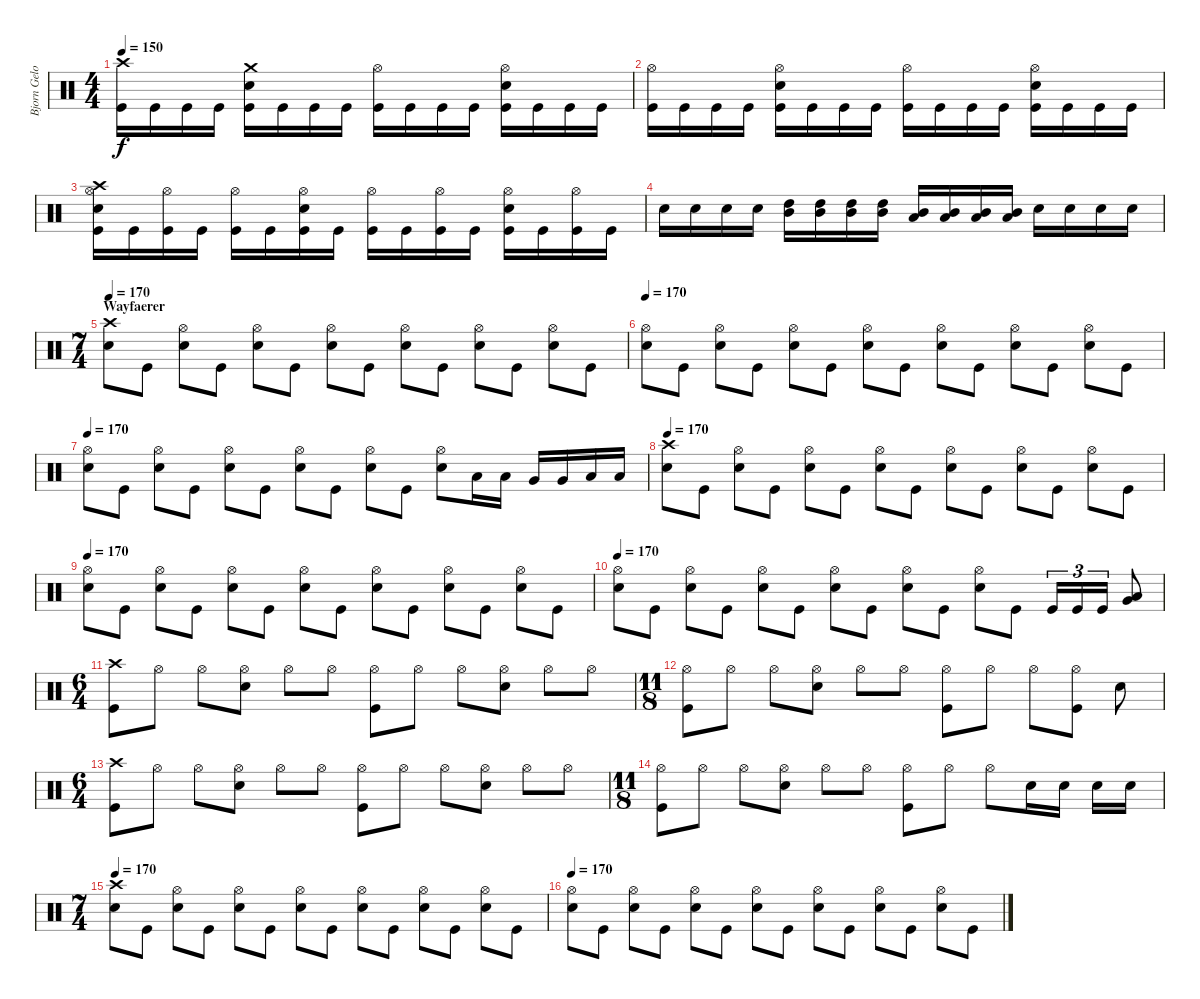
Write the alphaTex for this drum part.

\track ("Bjorn Gelotte-Drum" "Bjorn Gelo") {instrument percussion}
\staff {score}
\articulation defaults
\ts (4 4)
\tempo 150
\clef neutral
\ks c
("Kick (hit)" "Crash high (hit)").16{dy f} "Kick (hit)".16 "Kick (hit)".16 "Kick (hit)".16 ("Kick (hit)" "Electric Snare (hit)" "Crash medium (hit)").16 "Kick (hit)".16 "Kick (hit)".16 "Kick (hit)".16 ("Kick (hit)" "Hi-Hat (open)").16 "Kick (hit)".16 "Kick (hit)".16 "Kick (hit)".16 ("Kick (hit)" "Electric Snare (hit)" "Hi-Hat (open)").16 "Kick (hit)".16 "Kick (hit)".16 "Kick (hit)".16 |
("Kick (hit)" "Hi-Hat (open)").16 "Kick (hit)".16 "Kick (hit)".16 "Kick (hit)".16 ("Kick (hit)" "Electric Snare (hit)" "Hi-Hat (open)").16 "Kick (hit)".16 "Kick (hit)".16 "Kick (hit)".16 ("Kick (hit)" "Hi-Hat (open)").16 "Kick (hit)".16 "Kick (hit)".16 "Kick (hit)".16 ("Kick (hit)" "Electric Snare (hit)" "Hi-Hat (open)").16 "Kick (hit)".16 "Kick (hit)".16 "Kick (hit)".16 |
("Kick (hit)" "Electric Snare (hit)" "Hi-Hat (open)" "Crash high (hit)").16 "Kick (hit)".16 ("Kick (hit)" "Hi-Hat (open)").16 "Kick (hit)".16 ("Kick (hit)" "Hi-Hat (open)").16 "Kick (hit)".16 ("Kick (hit)" "Electric Snare (hit)" "Hi-Hat (open)").16 "Kick (hit)".16 ("Kick (hit)" "Hi-Hat (open)").16 "Kick (hit)".16 ("Kick (hit)" "Hi-Hat (open)").16 "Kick (hit)".16 ("Kick (hit)" "Electric Snare (hit)" "Hi-Hat (open)").16 "Kick (hit)".16 ("Kick (hit)" "Hi-Hat (open)").16 "Kick (hit)".16 |
"Electric Snare (hit)".16 "Electric Snare (hit)".16 "Electric Snare (hit)".16 "Electric Snare (hit)".16 ("High Tom (hit)" "Mid Tom (hit)").16 ("High Tom (hit)" "Mid Tom (hit)").16 ("High Tom (hit)" "Mid Tom (hit)").16 ("High Tom (hit)" "Mid Tom (hit)").16 ("Mid Tom (hit)" "Low Tom (hit)").16 ("Mid Tom (hit)" "Low Tom (hit)").16 ("Mid Tom (hit)" "Low Tom (hit)").16 ("Mid Tom (hit)" "Low Tom (hit)").16 "Electric Snare (hit)".16 "Electric Snare (hit)".16 "Electric Snare (hit)".16 "Electric Snare (hit)".16 |
\ts (7 4)
\section ("" "Wayfaerer")
\tempo 170
("Crash high (hit)" "Electric Snare (hit)").8 "Kick (hit)".8 ("Hi-Hat (open)" "Electric Snare (hit)").8 "Kick (hit)".8 ("Hi-Hat (open)" "Electric Snare (hit)").8 "Kick (hit)".8 ("Hi-Hat (open)" "Electric Snare (hit)").8 "Kick (hit)".8 ("Hi-Hat (open)" "Electric Snare (hit)").8 "Kick (hit)".8 ("Hi-Hat (open)" "Electric Snare (hit)").8 "Kick (hit)".8 ("Hi-Hat (open)" "Electric Snare (hit)").8 "Kick (hit)".8 |
\tempo 170
("Hi-Hat (open)" "Electric Snare (hit)").8 "Kick (hit)".8 ("Hi-Hat (open)" "Electric Snare (hit)").8 "Kick (hit)".8 ("Hi-Hat (open)" "Electric Snare (hit)").8 "Kick (hit)".8 ("Hi-Hat (open)" "Electric Snare (hit)").8 "Kick (hit)".8 ("Hi-Hat (open)" "Electric Snare (hit)").8 "Kick (hit)".8 ("Hi-Hat (open)" "Electric Snare (hit)").8 "Kick (hit)".8 ("Hi-Hat (open)" "Electric Snare (hit)").8 "Kick (hit)".8 |
\tempo 170
("Hi-Hat (open)" "Electric Snare (hit)").8 "Kick (hit)".8 ("Hi-Hat (open)" "Electric Snare (hit)").8 "Kick (hit)".8 ("Hi-Hat (open)" "Electric Snare (hit)").8 "Kick (hit)".8 ("Hi-Hat (open)" "Electric Snare (hit)").8 "Kick (hit)".8 ("Hi-Hat (open)" "Electric Snare (hit)").8 "Kick (hit)".8 ("Hi-Hat (open)" "Electric Snare (hit)").8 "Low Tom (hit)".16 "Low Tom (hit)".16 "Very Low Tom (hit)".16 "Very Low Tom (hit)".16 "Low Floor Tom (hit)".16 "Low Floor Tom (hit)".16 |
\tempo 170
("Crash high (hit)" "Electric Snare (hit)").8 "Kick (hit)".8 ("Hi-Hat (open)" "Electric Snare (hit)").8 "Kick (hit)".8 ("Hi-Hat (open)" "Electric Snare (hit)").8 "Kick (hit)".8 ("Hi-Hat (open)" "Electric Snare (hit)").8 "Kick (hit)".8 ("Hi-Hat (open)" "Electric Snare (hit)").8 "Kick (hit)".8 ("Hi-Hat (open)" "Electric Snare (hit)").8 "Kick (hit)".8 ("Hi-Hat (open)" "Electric Snare (hit)").8 "Kick (hit)".8 |
\tempo 170
("Hi-Hat (open)" "Electric Snare (hit)").8 "Kick (hit)".8 ("Hi-Hat (open)" "Electric Snare (hit)").8 "Kick (hit)".8 ("Hi-Hat (open)" "Electric Snare (hit)").8 "Kick (hit)".8 ("Hi-Hat (open)" "Electric Snare (hit)").8 "Kick (hit)".8 ("Hi-Hat (open)" "Electric Snare (hit)").8 "Kick (hit)".8 ("Hi-Hat (open)" "Electric Snare (hit)").8 "Kick (hit)".8 ("Hi-Hat (open)" "Electric Snare (hit)").8 "Kick (hit)".8 |
\tempo 170
("Hi-Hat (open)" "Electric Snare (hit)").8 "Kick (hit)".8 ("Hi-Hat (open)" "Electric Snare (hit)").8 "Kick (hit)".8 ("Hi-Hat (open)" "Electric Snare (hit)").8 "Kick (hit)".8 ("Hi-Hat (open)" "Electric Snare (hit)").8 "Kick (hit)".8 ("Hi-Hat (open)" "Electric Snare (hit)").8 "Kick (hit)".8 ("Hi-Hat (open)" "Electric Snare (hit)").8 "Kick (hit)".8 "Kick (hit)".16{tu (3 2)} "Kick (hit)".16{tu (3 2)} "Kick (hit)".16{tu (3 2)} ("Very Low Tom (hit)" "Low Floor Tom (hit)").8 |
\ts (6 4)
("Crash high (hit)" "Kick (hit)").8 "Hi-Hat (open)".8 "Hi-Hat (open)".8 ("Hi-Hat (open)" "Electric Snare (hit)").8 "Hi-Hat (open)".8 "Hi-Hat (open)".8 ("Hi-Hat (open)" "Kick (hit)").8 "Hi-Hat (open)".8 "Hi-Hat (open)".8 ("Hi-Hat (open)" "Electric Snare (hit)").8 "Hi-Hat (open)".8 "Hi-Hat (open)".8 |
\ts (11 8)
("Hi-Hat (open)" "Kick (hit)").8 "Hi-Hat (open)".8 "Hi-Hat (open)".8 ("Hi-Hat (open)" "Electric Snare (hit)").8 "Hi-Hat (open)".8 "Hi-Hat (open)".8 ("Hi-Hat (open)" "Kick (hit)").8 "Hi-Hat (open)".8 "Hi-Hat (open)".8 ("Hi-Hat (open)" "Kick (hit)").8 "Electric Snare (hit)".8 |
\ts (6 4)
("Crash high (hit)" "Kick (hit)").8 "Hi-Hat (open)".8 "Hi-Hat (open)".8 ("Hi-Hat (open)" "Electric Snare (hit)").8 "Hi-Hat (open)".8 "Hi-Hat (open)".8 ("Hi-Hat (open)" "Kick (hit)").8 "Hi-Hat (open)".8 "Hi-Hat (open)".8 ("Hi-Hat (open)" "Electric Snare (hit)").8 "Hi-Hat (open)".8 "Hi-Hat (open)".8 |
\ts (11 8)
("Hi-Hat (open)" "Kick (hit)").8 "Hi-Hat (open)".8 "Hi-Hat (open)".8 ("Hi-Hat (open)" "Electric Snare (hit)").8 "Hi-Hat (open)".8 "Hi-Hat (open)".8 ("Hi-Hat (open)" "Kick (hit)").8 "Hi-Hat (open)".8 "Hi-Hat (open)".8 "Electric Snare (hit)".16 "Electric Snare (hit)".16 "Electric Snare (hit)".16 "Electric Snare (hit)".16 |
\ts (7 4)
\tempo 170
("Crash high (hit)" "Electric Snare (hit)").8 "Kick (hit)".8 ("Hi-Hat (open)" "Electric Snare (hit)").8 "Kick (hit)".8 ("Hi-Hat (open)" "Electric Snare (hit)").8 "Kick (hit)".8 ("Hi-Hat (open)" "Electric Snare (hit)").8 "Kick (hit)".8 ("Hi-Hat (open)" "Electric Snare (hit)").8 "Kick (hit)".8 ("Hi-Hat (open)" "Electric Snare (hit)").8 "Kick (hit)".8 ("Hi-Hat (open)" "Electric Snare (hit)").8 "Kick (hit)".8 |
\tempo 170
("Hi-Hat (open)" "Electric Snare (hit)").8 "Kick (hit)".8 ("Hi-Hat (open)" "Electric Snare (hit)").8 "Kick (hit)".8 ("Hi-Hat (open)" "Electric Snare (hit)").8 "Kick (hit)".8 ("Hi-Hat (open)" "Electric Snare (hit)").8 "Kick (hit)".8 ("Hi-Hat (open)" "Electric Snare (hit)").8 "Kick (hit)".8 ("Hi-Hat (open)" "Electric Snare (hit)").8 "Kick (hit)".8 ("Hi-Hat (open)" "Electric Snare (hit)").8 "Kick (hit)".8
